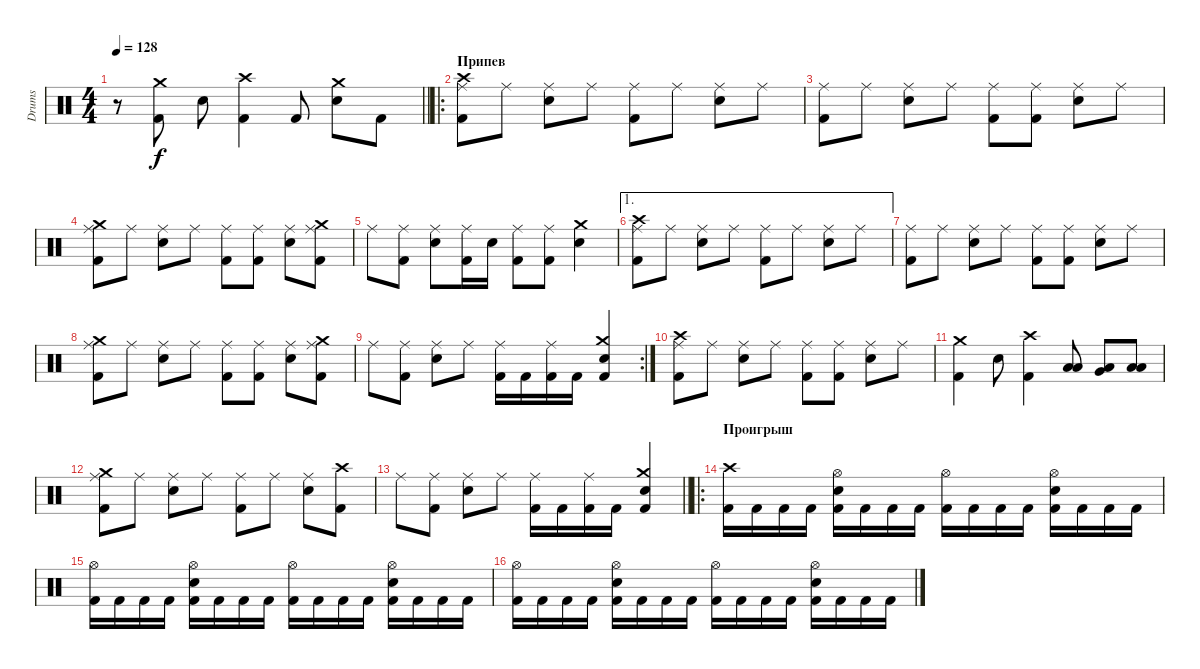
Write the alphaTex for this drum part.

\track ("Drums" "Drums") {instrument percussion}
\staff {score}
\articulation defaults
\ts (4 4)
\tempo 128
\clef neutral
\barLineRight lightlight
\ks c
r.8{dy f} ("Kick (hit) 2" "Crash medium (hit)").8 "Electric Snare (hit)".8 ("Kick (hit) 2" "Crash high (hit)").4 "Kick (hit) 2".8 ("Electric Snare (hit)" "Crash medium (hit)").8 "Kick (hit) 2".8 |
\ro
\section ("" "Припев")
("Kick (hit) 2" "Ride (middle)" "Crash high (hit)").8 "Ride (middle)".8 ("Electric Snare (hit)" "Ride (middle)").8 "Ride (middle)".8 ("Kick (hit) 2" "Ride (middle)").8 "Ride (middle)".8 ("Electric Snare (hit)" "Ride (middle)").8 "Ride (middle)".8 |
("Kick (hit) 2" "Ride (middle)").8 "Ride (middle)".8 ("Electric Snare (hit)" "Ride (middle)").8 "Ride (middle)".8 ("Kick (hit) 2" "Ride (middle)").8 ("Kick (hit) 2" "Ride (middle)").8 ("Electric Snare (hit)" "Ride (middle)").8 "Ride (middle)".8 |
("Kick (hit) 2" "Ride (middle)" "Crash medium (hit)").8 "Ride (middle)".8 ("Electric Snare (hit)" "Ride (middle)").8 "Ride (middle)".8 ("Kick (hit) 2" "Ride (middle)").8 ("Kick (hit) 2" "Ride (middle)").8 ("Electric Snare (hit)" "Ride (middle)").8 ("Kick (hit) 2" "Ride (middle)" "Crash medium (hit)").8 |
"Ride (middle)".8 ("Kick (hit) 2" "Ride (middle)").8 ("Electric Snare (hit)" "Ride (middle)").8 ("Kick (hit) 2" "Ride (middle)").16 "Electric Snare (hit)".16 ("Kick (hit) 2" "Ride (middle)").8 ("Kick (hit) 2" "Ride (middle)").8 ("Electric Snare (hit)" "Crash medium (hit)").4 |
\ae 1
("Kick (hit) 2" "Ride (middle)" "Crash high (hit)").8 "Ride (middle)".8 ("Electric Snare (hit)" "Ride (middle)").8 "Ride (middle)".8 ("Kick (hit) 2" "Ride (middle)").8 "Ride (middle)".8 ("Electric Snare (hit)" "Ride (middle)").8 "Ride (middle)".8 |
("Kick (hit) 2" "Ride (middle)").8 "Ride (middle)".8 ("Electric Snare (hit)" "Ride (middle)").8 "Ride (middle)".8 ("Kick (hit) 2" "Ride (middle)").8 ("Kick (hit) 2" "Ride (middle)").8 ("Electric Snare (hit)" "Ride (middle)").8 "Ride (middle)".8 |
("Kick (hit) 2" "Ride (middle)" "Crash medium (hit)").8 "Ride (middle)".8 ("Electric Snare (hit)" "Ride (middle)").8 "Ride (middle)".8 ("Kick (hit) 2" "Ride (middle)").8 ("Kick (hit) 2" "Ride (middle)").8 ("Electric Snare (hit)" "Ride (middle)").8 ("Kick (hit) 2" "Ride (middle)" "Crash medium (hit)").8 |
\rc 2 "Ride (middle)".8
("Kick (hit) 2" "Ride (middle)").8 ("Electric Snare (hit)" "Ride (middle)").8 "Ride (middle)".8 ("Kick (hit) 2" "Ride (middle)").16 "Kick (hit) 2".16 ("Kick (hit) 2" "Ride (middle)").16 "Kick (hit) 2".16 ("Kick (hit) 2" "Electric Snare (hit)" "Crash medium (hit)").4 |
("Kick (hit) 2" "Ride (middle)" "Crash high (hit)").8 "Ride (middle)".8 ("Electric Snare (hit)" "Ride (middle)").8 "Ride (middle)".8 ("Kick (hit) 2" "Ride (middle)").8 ("Kick (hit) 2" "Ride (middle)").8 ("Electric Snare (hit)" "Ride (middle)").8 "Ride (middle)".8 |
("Kick (hit) 2" "Crash medium (hit)").4 "Electric Snare (hit)".8 ("Kick (hit) 2" "Crash high (hit)").4 ("Low Floor Tom (hit)" "Low Tom (hit)").8 ("Low Floor Tom (hit)" "Very Low Tom (hit)").8 ("Low Floor Tom (hit)" "Low Floor Tom (hit)").8 |
("Kick (hit) 2" "Ride (middle)" "Crash medium (hit)").8 "Ride (middle)".8 ("Electric Snare (hit)" "Ride (middle)").8 "Ride (middle)".8 ("Kick (hit) 2" "Ride (middle)").8 "Ride (middle)".8 ("Electric Snare (hit)" "Ride (middle)").8 ("Kick (hit) 2" "Crash high (hit)").8 |
\barLineRight lightlight "Ride (middle)".8
("Kick (hit) 2" "Ride (middle)").8 ("Electric Snare (hit)" "Ride (middle)").8 "Ride (middle)".8 ("Kick (hit) 2" "Ride (middle)").16 "Kick (hit) 2".16 ("Kick (hit) 2" "Ride (middle)").16 "Kick (hit) 2".16 ("Kick (hit) 2" "Electric Snare (hit)" "Crash medium (hit)").4 |
\ro
\section ("" "Проигрыш")
("Kick (hit) 2" "Crash high (hit)").16 "Kick (hit) 2".16 "Kick (hit) 2".16 "Kick (hit) 2".16 ("Kick (hit) 2" "Electric Snare (hit)" "Hi-Hat (open)").16 "Kick (hit) 2".16 "Kick (hit) 2".16 "Kick (hit) 2".16 ("Kick (hit) 2" "Hi-Hat (open)").16 "Kick (hit) 2".16 "Kick (hit) 2".16 "Kick (hit) 2".16 ("Kick (hit) 2" "Electric Snare (hit)" "Hi-Hat (open)").16 "Kick (hit) 2".16 "Kick (hit) 2".16 "Kick (hit) 2".16 |
("Kick (hit) 2" "Hi-Hat (open)").16 "Kick (hit) 2".16 "Kick (hit) 2".16 "Kick (hit) 2".16 ("Kick (hit) 2" "Electric Snare (hit)" "Hi-Hat (open)").16 "Kick (hit) 2".16 "Kick (hit) 2".16 "Kick (hit) 2".16 ("Kick (hit) 2" "Hi-Hat (open)").16 "Kick (hit) 2".16 "Kick (hit) 2".16 "Kick (hit) 2".16 ("Kick (hit) 2" "Electric Snare (hit)" "Hi-Hat (open)").16 "Kick (hit) 2".16 "Kick (hit) 2".16 "Kick (hit) 2".16 |
("Kick (hit) 2" "Hi-Hat (open)").16 "Kick (hit) 2".16 "Kick (hit) 2".16 "Kick (hit) 2".16 ("Kick (hit) 2" "Electric Snare (hit)" "Hi-Hat (open)").16 "Kick (hit) 2".16 "Kick (hit) 2".16 "Kick (hit) 2".16 ("Kick (hit) 2" "Hi-Hat (open)").16 "Kick (hit) 2".16 "Kick (hit) 2".16 "Kick (hit) 2".16 ("Kick (hit) 2" "Electric Snare (hit)" "Hi-Hat (open)").16 "Kick (hit) 2".16 "Kick (hit) 2".16 "Kick (hit) 2".16
